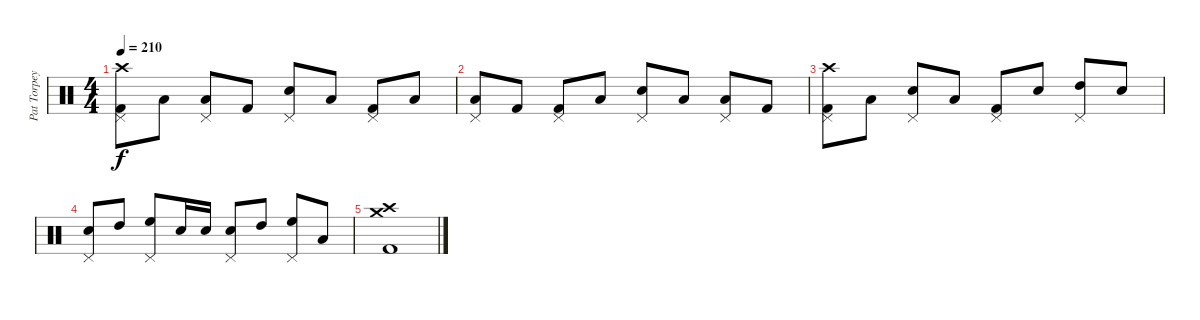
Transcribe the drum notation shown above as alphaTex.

\track ("Pat Torpey" "Pat Torpey") {instrument percussion}
\staff {score}
\articulation defaults
\ts (4 4)
\tempo 210
\clef neutral
\ks c
("Crash high (hit)" "Pedal Hi-Hat (hit)" "Kick (hit) 2").8{dy f} "Low Floor Tom (hit)".8 ("Pedal Hi-Hat (hit)" "Low Floor Tom (hit)").8 "Kick (hit) 2".8 ("Pedal Hi-Hat (hit)" "Snare (hit) 2").8 "Low Floor Tom (hit)".8 ("Pedal Hi-Hat (hit)" "Kick (hit) 2").8 "Low Floor Tom (hit)".8 |
("Pedal Hi-Hat (hit)" "Low Floor Tom (hit)").8 "Kick (hit) 2".8 ("Pedal Hi-Hat (hit)" "Kick (hit) 2").8 "Low Floor Tom (hit)".8 ("Pedal Hi-Hat (hit)" "Snare (hit) 2").8 "Low Floor Tom (hit)".8 ("Pedal Hi-Hat (hit)" "Low Floor Tom (hit)").8 "Kick (hit) 2".8 |
("Crash high (hit)" "Pedal Hi-Hat (hit)" "Kick (hit) 2").8 "Low Floor Tom (hit)".8 ("Pedal Hi-Hat (hit)" "Snare (hit) 2").8 "Low Floor Tom (hit)".8 ("Pedal Hi-Hat (hit)" "Kick (hit) 2").8 "Snare (hit) 2".8 ("Pedal Hi-Hat (hit)" "High Tom (hit)").8 "Snare (hit) 2".8 |
("Pedal Hi-Hat (hit)" "Snare (hit) 2").8 "High Tom (hit)".8 ("Pedal Hi-Hat (hit)" "High Floor Tom (hit)").8 "Snare (hit) 2".16 "Snare (hit) 2".16 ("Pedal Hi-Hat (hit)" "Snare (hit) 2").8 "High Tom (hit)".8 ("Pedal Hi-Hat (hit)" "High Floor Tom (hit)").8 "Low Floor Tom (hit)".8 |
("Crash high (hit)" "Crash medium (hit)" "Kick (hit) 2").1
